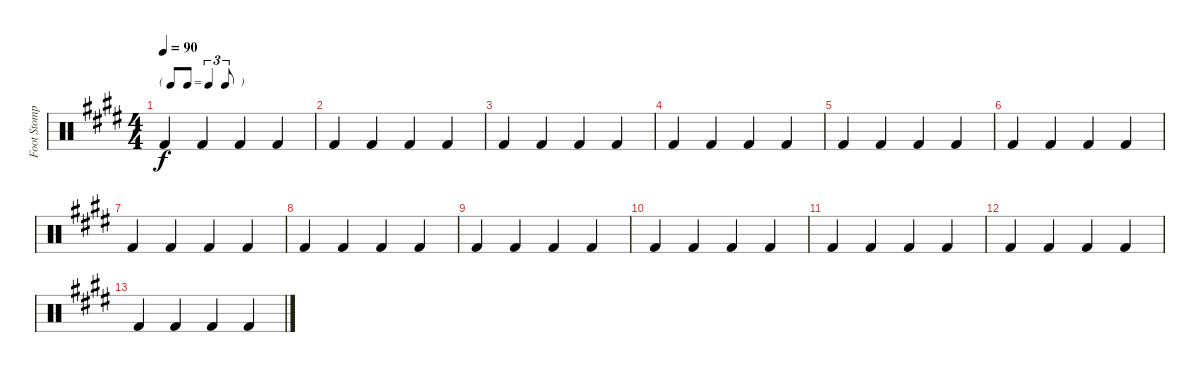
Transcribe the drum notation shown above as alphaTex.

\track ("Foot Stomp" "Foot Stomp") {instrument percussion}
\staff {score}
\articulation defaults
\ts (4 4)
\tf triplet8th
\tempo 90
\clef neutral
\ks e "Kick (hit) 2".4{dy f} "Kick (hit) 2".4 "Kick (hit) 2".4 "Kick (hit) 2".4
|
"Kick (hit) 2".4 "Kick (hit) 2".4 "Kick (hit) 2".4 "Kick (hit) 2".4 |
"Kick (hit) 2".4 "Kick (hit) 2".4 "Kick (hit) 2".4 "Kick (hit) 2".4 |
"Kick (hit) 2".4 "Kick (hit) 2".4 "Kick (hit) 2".4 "Kick (hit) 2".4 |
"Kick (hit) 2".4 "Kick (hit) 2".4 "Kick (hit) 2".4 "Kick (hit) 2".4 |
"Kick (hit) 2".4 "Kick (hit) 2".4 "Kick (hit) 2".4 "Kick (hit) 2".4 |
"Kick (hit) 2".4 "Kick (hit) 2".4 "Kick (hit) 2".4 "Kick (hit) 2".4 |
"Kick (hit) 2".4 "Kick (hit) 2".4 "Kick (hit) 2".4 "Kick (hit) 2".4 |
"Kick (hit) 2".4 "Kick (hit) 2".4 "Kick (hit) 2".4 "Kick (hit) 2".4 |
"Kick (hit) 2".4 "Kick (hit) 2".4 "Kick (hit) 2".4 "Kick (hit) 2".4 |
"Kick (hit) 2".4 "Kick (hit) 2".4 "Kick (hit) 2".4 "Kick (hit) 2".4 |
"Kick (hit) 2".4 "Kick (hit) 2".4 "Kick (hit) 2".4 "Kick (hit) 2".4 |
"Kick (hit) 2".4 "Kick (hit) 2".4 "Kick (hit) 2".4 "Kick (hit) 2".4
